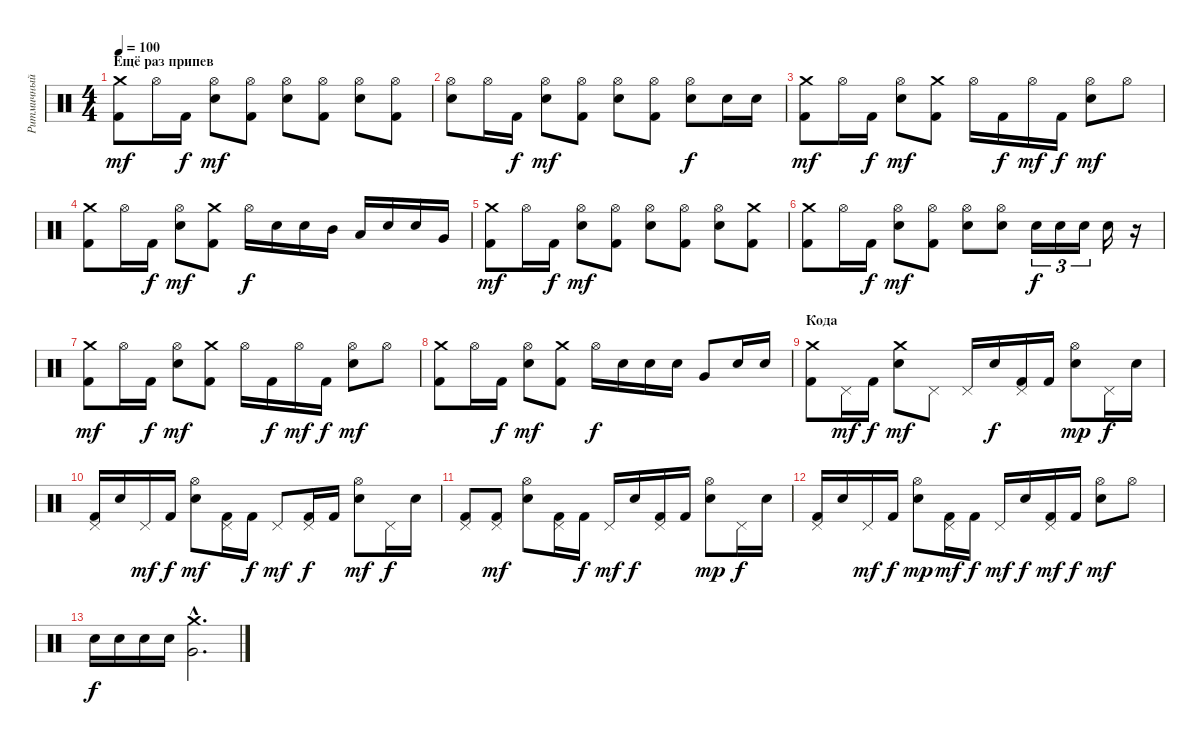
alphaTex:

\track ("Ритмичный Вова" "Ритмичный ") {instrument percussion}
\staff {score}
\articulation defaults
\ts (4 4)
\section ("" "Ещё раз припев")
\tempo 100
\clef neutral
\ks c
("Crash medium (hit)" "Kick (hit) 2").8{dy mf} "Hi-Hat (open)".16 "Kick (hit) 2".16{dy f} ("Hi-Hat (open)" "Electric Snare (hit)").8{dy mf} ("Hi-Hat (open)" "Kick (hit) 2").8 ("Hi-Hat (open)" "Electric Snare (hit)").8 ("Hi-Hat (open)" "Kick (hit) 2").8 ("Hi-Hat (open)" "Electric Snare (hit)").8 ("Hi-Hat (open)" "Kick (hit) 2").8 |
("Hi-Hat (open)" "Electric Snare (hit)").8 "Hi-Hat (open)".16 "Kick (hit) 2".16{dy f} ("Hi-Hat (open)" "Electric Snare (hit)").8{dy mf} ("Hi-Hat (open)" "Kick (hit) 2").8 ("Hi-Hat (open)" "Electric Snare (hit)").8 ("Hi-Hat (open)" "Kick (hit) 2").8 ("Hi-Hat (open)" "Electric Snare (hit)").8{dy f} "Electric Snare (hit)".16 "Electric Snare (hit)".16 |
("Crash medium (hit)" "Kick (hit) 2").8{dy mf} "Hi-Hat (open)".16 "Kick (hit) 2".16{dy f} ("Hi-Hat (open)" "Electric Snare (hit)").8{dy mf} ("Crash medium (hit)" "Kick (hit) 2").8 "Hi-Hat (open)".16 "Kick (hit) 2".16{dy f} "Hi-Hat (open)".16{dy mf} "Kick (hit) 2".16{dy f} ("Hi-Hat (open)" "Electric Snare (hit)").8{dy mf} "Hi-Hat (open)".8 |
("Crash medium (hit)" "Kick (hit) 2").8 "Hi-Hat (open)".16 "Kick (hit) 2".16{dy f} ("Hi-Hat (open)" "Electric Snare (hit)").8{dy mf} ("Crash medium (hit)" "Kick (hit) 2").8 "Hi-Hat (open)".16{dy f} "Electric Snare (hit)".16 "Electric Snare (hit)".16 "Mid Tom (hit)".16 "Low Tom (hit)".16 "Electric Snare (hit)".16 "Electric Snare (hit)".16 "Very Low Tom (hit)".16 |
("Crash medium (hit)" "Kick (hit) 2").8{dy mf} "Hi-Hat (open)".16 "Kick (hit) 2".16{dy f} ("Hi-Hat (open)" "Electric Snare (hit)").8{dy mf} ("Hi-Hat (open)" "Kick (hit) 2").8 ("Hi-Hat (open)" "Electric Snare (hit)").8 ("Hi-Hat (open)" "Kick (hit) 2").8 ("Hi-Hat (open)" "Electric Snare (hit)").8 ("Crash medium (hit)" "Kick (hit) 2").8 |
("Crash medium (hit)" "Kick (hit) 2").8 "Hi-Hat (open)".16 "Kick (hit) 2".16{dy f} ("Hi-Hat (open)" "Electric Snare (hit)").8{dy mf} ("Hi-Hat (open)" "Kick (hit) 2").8 ("Hi-Hat (open)" "Electric Snare (hit)").8 ("Hi-Hat (open)" "Electric Snare (hit)").8 "Electric Snare (hit)".16{tu (3 2) dy f} "Electric Snare (hit)".16{tu (3 2)} "Electric Snare (hit)".16{tu (3 2)} "Electric Snare (hit)".16 r.16 |
("Crash medium (hit)" "Kick (hit) 2").8{dy mf} "Hi-Hat (open)".16 "Kick (hit) 2".16{dy f} ("Hi-Hat (open)" "Electric Snare (hit)").8{dy mf} ("Crash medium (hit)" "Kick (hit) 2").8 "Hi-Hat (open)".16 "Kick (hit) 2".16{dy f} "Hi-Hat (open)".16{dy mf} "Kick (hit) 2".16{dy f} ("Hi-Hat (open)" "Electric Snare (hit)").8{dy mf} "Hi-Hat (open)".8 |
("Crash medium (hit)" "Kick (hit) 2").8 "Hi-Hat (open)".16 "Kick (hit) 2".16{dy f} ("Hi-Hat (open)" "Electric Snare (hit)").8{dy mf} ("Crash medium (hit)" "Kick (hit) 2").8 "Hi-Hat (open)".16{dy f} "Electric Snare (hit)".16 "Electric Snare (hit)".16 "Electric Snare (hit)".16 "Very Low Tom (hit)".8 "Electric Snare (hit)".16 "Electric Snare (hit)".16 |
\section ("" "Кода")
("Crash medium (hit)" "Kick (hit) 2").8 "Pedal Hi-Hat (hit)".16{dy mf} "Kick (hit) 2".16{dy f} ("Crash medium (hit)" "Electric Snare (hit)").8{dy mf} "Pedal Hi-Hat (hit)".8 "Pedal Hi-Hat (hit)".16 "Electric Snare (hit)".16{dy f} ("Pedal Hi-Hat (hit)" "Kick (hit) 2").16 "Kick (hit) 2".16 ("Hi-Hat (open)" "Electric Snare (hit)").8{dy mp} "Pedal Hi-Hat (hit)".16{dy f} "Electric Snare (hit)".16 |
("Pedal Hi-Hat (hit)" "Kick (hit) 2").16 "Electric Snare (hit)".16 "Pedal Hi-Hat (hit)".16{dy mf} "Kick (hit) 2".16{dy f} ("Hi-Hat (open)" "Electric Snare (hit)").8{dy mf} ("Pedal Hi-Hat (hit)" "Kick (hit) 2").16 "Kick (hit) 2".16{dy f} "Pedal Hi-Hat (hit)".8{dy mf} ("Pedal Hi-Hat (hit)" "Kick (hit) 2").16{dy f} "Kick (hit) 2".16 ("Hi-Hat (open)" "Electric Snare (hit)").8{dy mf} "Pedal Hi-Hat (hit)".16{dy f} "Electric Snare (hit)".16 |
("Pedal Hi-Hat (hit)" "Kick (hit) 2").8 ("Pedal Hi-Hat (hit)" "Kick (hit) 2").8{dy mf} ("Hi-Hat (open)" "Electric Snare (hit)").8 ("Pedal Hi-Hat (hit)" "Kick (hit) 2").16 "Kick (hit) 2".16{dy f} "Pedal Hi-Hat (hit)".16{dy mf} "Electric Snare (hit)".16{dy f} ("Pedal Hi-Hat (hit)" "Kick (hit) 2").16 "Kick (hit) 2".16 ("Hi-Hat (open)" "Electric Snare (hit)").8{dy mp} "Pedal Hi-Hat (hit)".16{dy f} "Electric Snare (hit)".16 |
("Pedal Hi-Hat (hit)" "Kick (hit) 2").16 "Electric Snare (hit)".16 "Pedal Hi-Hat (hit)".16{dy mf} "Kick (hit) 2".16{dy f} ("Hi-Hat (open)" "Electric Snare (hit)").8{dy mp} ("Pedal Hi-Hat (hit)" "Kick (hit) 2").16{dy mf} "Kick (hit) 2".16{dy f} "Pedal Hi-Hat (hit)".16{dy mf} "Electric Snare (hit)".16{dy f} ("Pedal Hi-Hat (hit)" "Kick (hit) 2").16{dy mf} "Kick (hit) 2".16{dy f} ("Hi-Hat (open)" "Electric Snare (hit)").8{dy mf} "Hi-Hat (open)".8 |
"Electric Snare (hit)".16{dy f} "Electric Snare (hit)".16 "Electric Snare (hit)".16 "Electric Snare (hit)".16 ("Crash medium (hit)"{hac} "Very Low Tom (hit)"{hac}).2{d}
